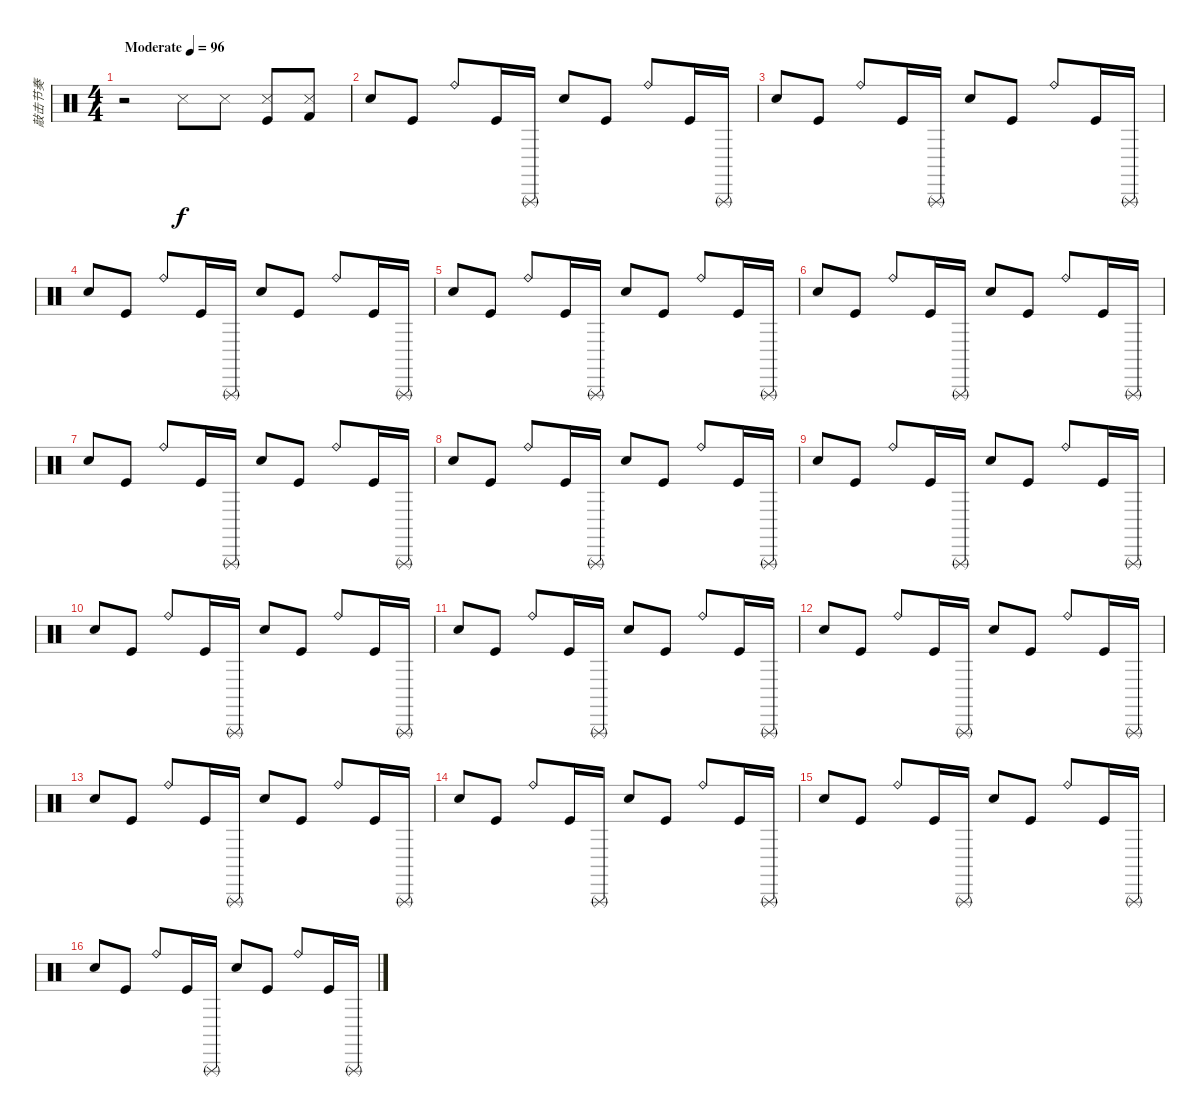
\track ("敲击节奏" "敲击节奏") {instrument percussion}
\staff {score}
\articulation defaults
\ts (4 4)
\tempo (96 "Moderate")
\clef neutral
\ks c
r.2{dy f} "Metronome (hit)".8 "Metronome (hit)".8 ("Metronome (hit)" "Kick (hit)").8 ("Metronome (hit)" "Kick (hit) 2").8 |
"Snare (hit) 2".8 "Kick (hit)".8 "Ride (bell)".8 "Kick (hit)".16 "Triangle (rnute)".16 "Snare (hit) 2".8 "Kick (hit)".8 "Ride (bell)".8 "Kick (hit)".16 "Triangle (rnute)".16 |
"Snare (hit) 2".8 "Kick (hit)".8 "Ride (bell)".8 "Kick (hit)".16 "Triangle (rnute)".16 "Snare (hit) 2".8 "Kick (hit)".8 "Ride (bell)".8 "Kick (hit)".16 "Triangle (rnute)".16 |
"Snare (hit) 2".8 "Kick (hit)".8 "Ride (bell)".8 "Kick (hit)".16 "Triangle (rnute)".16 "Snare (hit) 2".8 "Kick (hit)".8 "Ride (bell)".8 "Kick (hit)".16 "Triangle (rnute)".16 |
"Snare (hit) 2".8 "Kick (hit)".8 "Ride (bell)".8 "Kick (hit)".16 "Triangle (rnute)".16 "Snare (hit) 2".8 "Kick (hit)".8 "Ride (bell)".8 "Kick (hit)".16 "Triangle (rnute)".16 |
"Snare (hit) 2".8 "Kick (hit)".8 "Ride (bell)".8 "Kick (hit)".16 "Triangle (rnute)".16 "Snare (hit) 2".8 "Kick (hit)".8 "Ride (bell)".8 "Kick (hit)".16 "Triangle (rnute)".16 |
"Snare (hit) 2".8 "Kick (hit)".8 "Ride (bell)".8 "Kick (hit)".16 "Triangle (rnute)".16 "Snare (hit) 2".8 "Kick (hit)".8 "Ride (bell)".8 "Kick (hit)".16 "Triangle (rnute)".16 |
"Snare (hit) 2".8 "Kick (hit)".8 "Ride (bell)".8 "Kick (hit)".16 "Triangle (rnute)".16 "Snare (hit) 2".8 "Kick (hit)".8 "Ride (bell)".8 "Kick (hit)".16 "Triangle (rnute)".16 |
"Snare (hit) 2".8 "Kick (hit)".8 "Ride (bell)".8 "Kick (hit)".16 "Triangle (rnute)".16 "Snare (hit) 2".8 "Kick (hit)".8 "Ride (bell)".8 "Kick (hit)".16 "Triangle (rnute)".16 |
"Snare (hit) 2".8 "Kick (hit)".8 "Ride (bell)".8 "Kick (hit)".16 "Triangle (rnute)".16 "Snare (hit) 2".8 "Kick (hit)".8 "Ride (bell)".8 "Kick (hit)".16 "Triangle (rnute)".16 |
"Snare (hit) 2".8 "Kick (hit)".8 "Ride (bell)".8 "Kick (hit)".16 "Triangle (rnute)".16 "Snare (hit) 2".8 "Kick (hit)".8 "Ride (bell)".8 "Kick (hit)".16 "Triangle (rnute)".16 |
"Snare (hit) 2".8 "Kick (hit)".8 "Ride (bell)".8 "Kick (hit)".16 "Triangle (rnute)".16 "Snare (hit) 2".8 "Kick (hit)".8 "Ride (bell)".8 "Kick (hit)".16 "Triangle (rnute)".16 |
"Snare (hit) 2".8 "Kick (hit)".8 "Ride (bell)".8 "Kick (hit)".16 "Triangle (rnute)".16 "Snare (hit) 2".8 "Kick (hit)".8 "Ride (bell)".8 "Kick (hit)".16 "Triangle (rnute)".16 |
"Snare (hit) 2".8 "Kick (hit)".8 "Ride (bell)".8 "Kick (hit)".16 "Triangle (rnute)".16 "Snare (hit) 2".8 "Kick (hit)".8 "Ride (bell)".8 "Kick (hit)".16 "Triangle (rnute)".16 |
"Snare (hit) 2".8 "Kick (hit)".8 "Ride (bell)".8 "Kick (hit)".16 "Triangle (rnute)".16 "Snare (hit) 2".8 "Kick (hit)".8 "Ride (bell)".8 "Kick (hit)".16 "Triangle (rnute)".16 |
"Snare (hit) 2".8 "Kick (hit)".8 "Ride (bell)".8 "Kick (hit)".16 "Triangle (rnute)".16 "Snare (hit) 2".8 "Kick (hit)".8 "Ride (bell)".8 "Kick (hit)".16 "Triangle (rnute)".16
